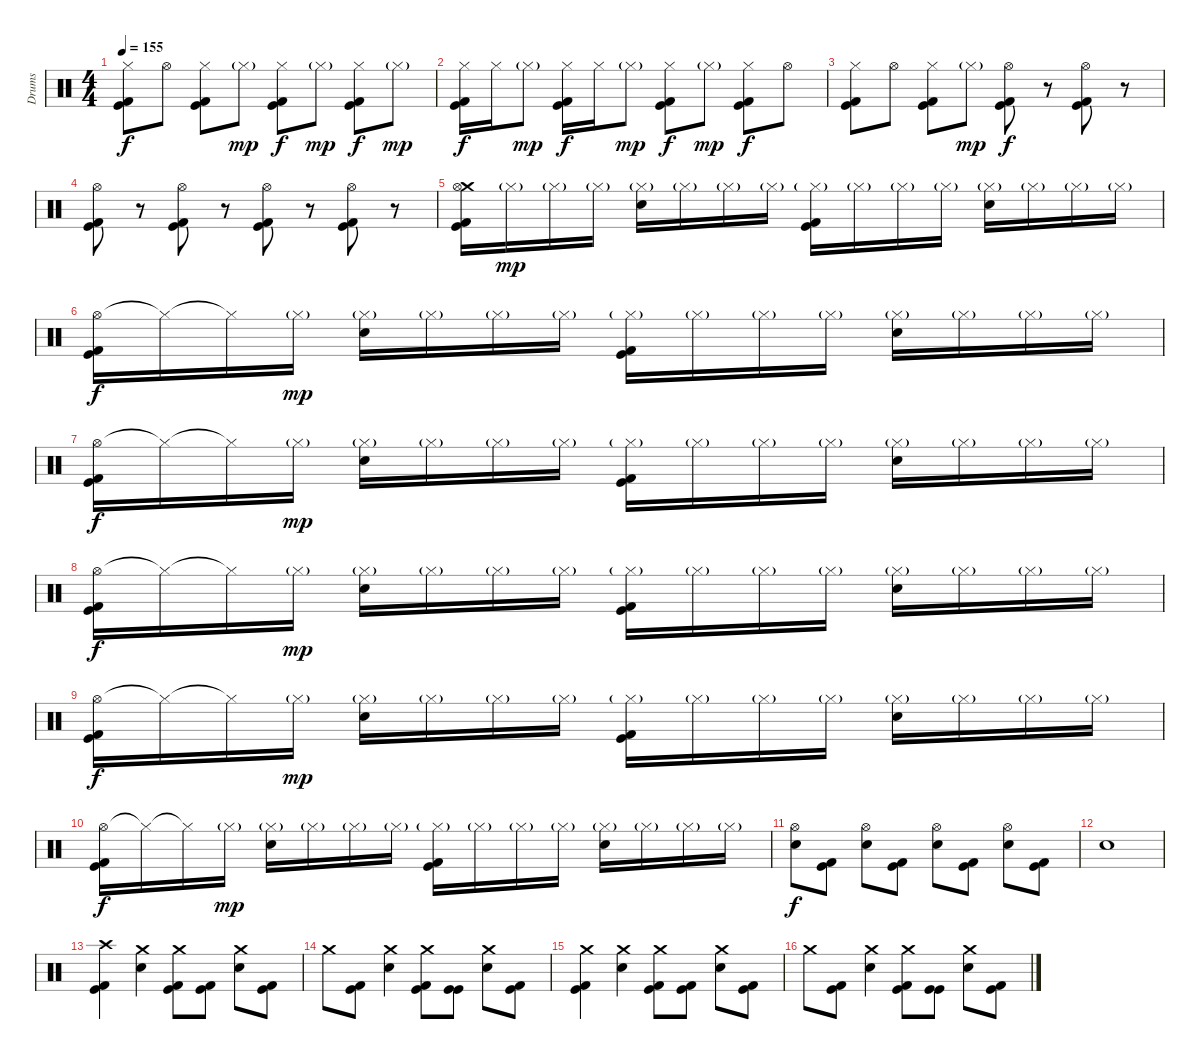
\track ("Drums" "Drums") {instrument percussion}
\staff {score}
\articulation defaults
\ts (4 4)
\tempo 155
\clef neutral
\ks c
("Hi-Hat (closed)" "Kick (hit)" "Kick (hit) 2").8{dy f} "Hi-Hat (open)".8 ("Hi-Hat (closed)" "Kick (hit)" "Kick (hit) 2").8 "Hi-Hat (closed)"{g}.8{dy mp} ("Hi-Hat (closed)" "Kick (hit)" "Kick (hit) 2").8{dy f} "Hi-Hat (closed)"{g}.8{dy mp} ("Hi-Hat (closed)" "Kick (hit)" "Kick (hit) 2").8{dy f} "Hi-Hat (closed)"{g}.8{dy mp} |
("Hi-Hat (closed)" "Kick (hit)" "Kick (hit) 2").16{dy f} "Hi-Hat (closed)".16 "Hi-Hat (closed)"{g}.8{dy mp} ("Hi-Hat (closed)" "Kick (hit)" "Kick (hit) 2").16{dy f} "Hi-Hat (closed)".16 "Hi-Hat (closed)"{g}.8{dy mp} ("Hi-Hat (closed)" "Kick (hit)" "Kick (hit) 2").8{dy f} "Hi-Hat (closed)"{g}.8{dy mp} ("Hi-Hat (closed)" "Kick (hit)" "Kick (hit) 2").8{dy f} "Hi-Hat (open)".8 |
("Hi-Hat (closed)" "Kick (hit)" "Kick (hit) 2").8 "Hi-Hat (open)".8 ("Hi-Hat (closed)" "Kick (hit)" "Kick (hit) 2").8 "Hi-Hat (closed)"{g}.8{dy mp} ("Hi-Hat (open)" "Kick (hit)" "Kick (hit) 2").8{dy f} r.8 ("Hi-Hat (open)" "Kick (hit)" "Kick (hit) 2").8 r.8 |
("Hi-Hat (open)" "Kick (hit)" "Kick (hit) 2").8 r.8 ("Hi-Hat (open)" "Kick (hit)" "Kick (hit) 2").8 r.8 ("Hi-Hat (open)" "Kick (hit)" "Kick (hit) 2").8 r.8 ("Hi-Hat (open)" "Kick (hit)" "Kick (hit) 2").8 r.8 |
("Crash medium (hit)" "Hi-Hat (open)" "Kick (hit)" "Kick (hit) 2").16 "Hi-Hat (closed)"{g}.16{dy mp} "Hi-Hat (closed)"{g}.16 "Hi-Hat (closed)"{g}.16 ("Hi-Hat (closed)"{g} "Electric Snare (hit)").16 "Hi-Hat (closed)"{g}.16 "Hi-Hat (closed)"{g}.16 "Hi-Hat (closed)"{g}.16 ("Hi-Hat (closed)"{g} "Kick (hit)" "Kick (hit) 2").16 "Hi-Hat (closed)"{g}.16 "Hi-Hat (closed)"{g}.16 "Hi-Hat (closed)"{g}.16 ("Hi-Hat (closed)"{g} "Electric Snare (hit)").16 "Hi-Hat (closed)"{g}.16 "Hi-Hat (closed)"{g}.16 "Hi-Hat (closed)"{g}.16 |
("Hi-Hat (open)" "Kick (hit)" "Kick (hit) 2").16{dy f} "Hi-Hat (closed)"{t}.16 "Hi-Hat (closed)"{t}.16 "Hi-Hat (closed)"{g}.16{dy mp} ("Hi-Hat (closed)"{g} "Electric Snare (hit)").16 "Hi-Hat (closed)"{g}.16 "Hi-Hat (closed)"{g}.16 "Hi-Hat (closed)"{g}.16 ("Hi-Hat (closed)"{g} "Kick (hit)" "Kick (hit) 2").16 "Hi-Hat (closed)"{g}.16 "Hi-Hat (closed)"{g}.16 "Hi-Hat (closed)"{g}.16 ("Hi-Hat (closed)"{g} "Electric Snare (hit)").16 "Hi-Hat (closed)"{g}.16 "Hi-Hat (closed)"{g}.16 "Hi-Hat (closed)"{g}.16 |
("Hi-Hat (open)" "Kick (hit)" "Kick (hit) 2").16{dy f} "Hi-Hat (closed)"{t}.16 "Hi-Hat (closed)"{t}.16 "Hi-Hat (closed)"{g}.16{dy mp} ("Hi-Hat (closed)"{g} "Electric Snare (hit)").16 "Hi-Hat (closed)"{g}.16 "Hi-Hat (closed)"{g}.16 "Hi-Hat (closed)"{g}.16 ("Hi-Hat (closed)"{g} "Kick (hit)" "Kick (hit) 2").16 "Hi-Hat (closed)"{g}.16 "Hi-Hat (closed)"{g}.16 "Hi-Hat (closed)"{g}.16 ("Hi-Hat (closed)"{g} "Electric Snare (hit)").16 "Hi-Hat (closed)"{g}.16 "Hi-Hat (closed)"{g}.16 "Hi-Hat (closed)"{g}.16 |
("Hi-Hat (open)" "Kick (hit)" "Kick (hit) 2").16{dy f} "Hi-Hat (closed)"{t}.16 "Hi-Hat (closed)"{t}.16 "Hi-Hat (closed)"{g}.16{dy mp} ("Hi-Hat (closed)"{g} "Electric Snare (hit)").16 "Hi-Hat (closed)"{g}.16 "Hi-Hat (closed)"{g}.16 "Hi-Hat (closed)"{g}.16 ("Hi-Hat (closed)"{g} "Kick (hit)" "Kick (hit) 2").16 "Hi-Hat (closed)"{g}.16 "Hi-Hat (closed)"{g}.16 "Hi-Hat (closed)"{g}.16 ("Hi-Hat (closed)"{g} "Electric Snare (hit)").16 "Hi-Hat (closed)"{g}.16 "Hi-Hat (closed)"{g}.16 "Hi-Hat (closed)"{g}.16 |
("Hi-Hat (open)" "Kick (hit)" "Kick (hit) 2").16{dy f} "Hi-Hat (closed)"{t}.16 "Hi-Hat (closed)"{t}.16 "Hi-Hat (closed)"{g}.16{dy mp} ("Hi-Hat (closed)"{g} "Electric Snare (hit)").16 "Hi-Hat (closed)"{g}.16 "Hi-Hat (closed)"{g}.16 "Hi-Hat (closed)"{g}.16 ("Hi-Hat (closed)"{g} "Kick (hit)" "Kick (hit) 2").16 "Hi-Hat (closed)"{g}.16 "Hi-Hat (closed)"{g}.16 "Hi-Hat (closed)"{g}.16 ("Hi-Hat (closed)"{g} "Electric Snare (hit)").16 "Hi-Hat (closed)"{g}.16 "Hi-Hat (closed)"{g}.16 "Hi-Hat (closed)"{g}.16 |
("Hi-Hat (open)" "Kick (hit)" "Kick (hit) 2").16{dy f} "Hi-Hat (closed)"{t}.16 "Hi-Hat (closed)"{t}.16 "Hi-Hat (closed)"{g}.16{dy mp} ("Hi-Hat (closed)"{g} "Electric Snare (hit)").16 "Hi-Hat (closed)"{g}.16 "Hi-Hat (closed)"{g}.16 "Hi-Hat (closed)"{g}.16 ("Hi-Hat (closed)"{g} "Kick (hit)" "Kick (hit) 2").16 "Hi-Hat (closed)"{g}.16 "Hi-Hat (closed)"{g}.16 "Hi-Hat (closed)"{g}.16 ("Hi-Hat (closed)"{g} "Electric Snare (hit)").16 "Hi-Hat (closed)"{g}.16 "Hi-Hat (closed)"{g}.16 "Hi-Hat (closed)"{g}.16 |
("Hi-Hat (open)" "Electric Snare (hit)").8{dy f} ("Kick (hit)" "Kick (hit) 2").8 ("Hi-Hat (open)" "Electric Snare (hit)").8 ("Kick (hit)" "Kick (hit) 2").8 ("Hi-Hat (open)" "Electric Snare (hit)").8 ("Kick (hit)" "Kick (hit) 2").8 ("Hi-Hat (open)" "Electric Snare (hit)").8 ("Kick (hit)" "Kick (hit) 2").8 |
"Electric Snare (hit)".1 |
("Crash high (hit)" "Kick (hit)" "Kick (hit) 2").4 ("Crash medium (hit)" "Electric Snare (hit)").4 ("Crash medium (hit)" "Kick (hit)" "Kick (hit) 2").8 ("Kick (hit)" "Kick (hit) 2").8 ("Crash medium (hit)" "Electric Snare (hit)").8 ("Kick (hit)" "Kick (hit) 2").8 |
"Crash medium (hit)".8 ("Kick (hit)" "Kick (hit) 2").8 ("Crash medium (hit)" "Electric Snare (hit)").4 ("Crash medium (hit)" "Kick (hit)" "Kick (hit) 2").8 ("Kick (hit)" "Kick (hit)").8 ("Crash medium (hit)" "Electric Snare (hit)").8 ("Kick (hit)" "Kick (hit) 2").8 |
("Crash medium (hit)" "Kick (hit)" "Kick (hit) 2").4 ("Crash medium (hit)" "Electric Snare (hit)").4 ("Crash medium (hit)" "Kick (hit)" "Kick (hit) 2").8 ("Kick (hit)" "Kick (hit) 2").8 ("Crash medium (hit)" "Electric Snare (hit)").8 ("Kick (hit)" "Kick (hit) 2").8 |
"Crash medium (hit)".8 ("Kick (hit)" "Kick (hit) 2").8 ("Crash medium (hit)" "Electric Snare (hit)").4 ("Crash medium (hit)" "Kick (hit)" "Kick (hit) 2").8 ("Kick (hit)" "Kick (hit)").8 ("Crash medium (hit)" "Electric Snare (hit)").8 ("Kick (hit)" "Kick (hit) 2").8
